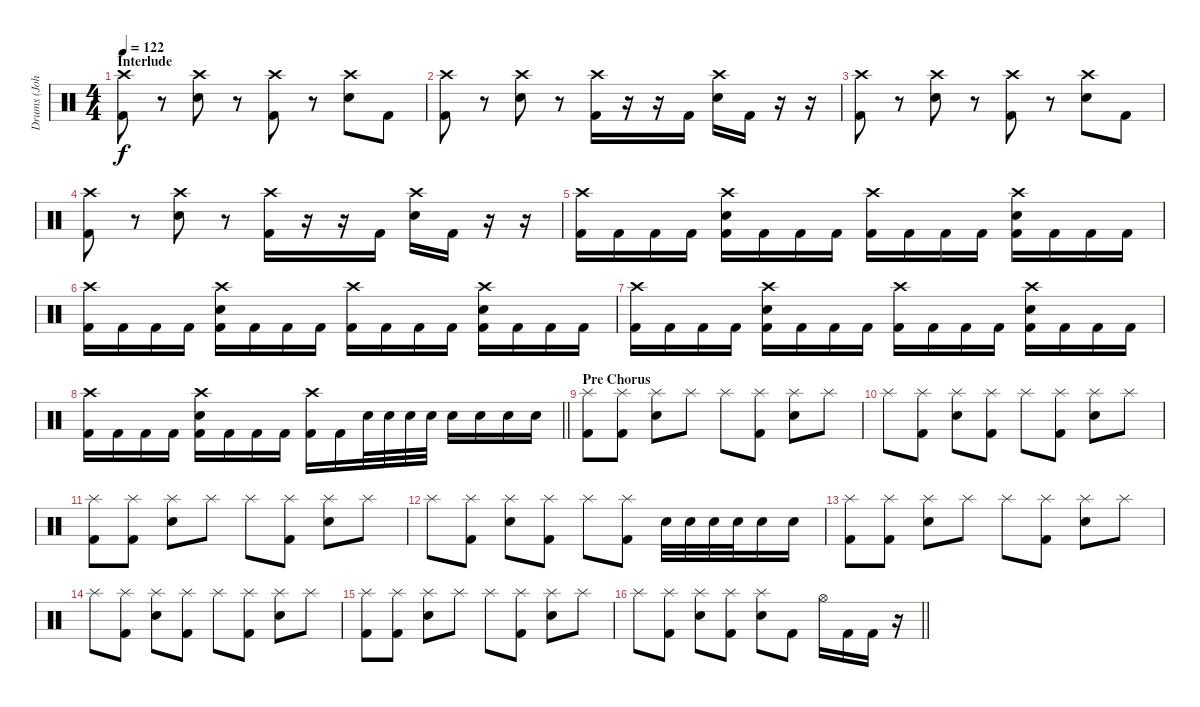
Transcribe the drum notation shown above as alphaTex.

\track ("Drums (John)" "Drums (Joh") {instrument percussion}
\staff {score}
\articulation defaults
\ts (4 4)
\section ("" "Interlude")
\tempo 122
\clef neutral
\ks c
("Crash high (hit)" "Kick (hit) 2").8{dy f} r.8 ("Crash high (hit)" "Electric Snare (hit)").8 r.8 ("Crash high (hit)" "Kick (hit) 2").8 r.8 ("Crash high (hit)" "Electric Snare (hit)").8 "Kick (hit) 2".8 |
("Crash high (hit)" "Kick (hit) 2").8 r.8 ("Crash high (hit)" "Electric Snare (hit)").8 r.8 ("Crash high (hit)" "Kick (hit) 2").16 r.16 r.16 "Kick (hit) 2".16 ("Crash high (hit)" "Electric Snare (hit)").16 "Kick (hit) 2".16 r.16 r.16 |
("Crash high (hit)" "Kick (hit) 2").8 r.8 ("Crash high (hit)" "Electric Snare (hit)").8 r.8 ("Crash high (hit)" "Kick (hit) 2").8 r.8 ("Crash high (hit)" "Electric Snare (hit)").8 "Kick (hit) 2".8 |
("Crash high (hit)" "Kick (hit) 2").8 r.8 ("Crash high (hit)" "Electric Snare (hit)").8 r.8 ("Crash high (hit)" "Kick (hit) 2").16 r.16 r.16 "Kick (hit) 2".16 ("Crash high (hit)" "Electric Snare (hit)").16 "Kick (hit) 2".16 r.16 r.16 |
("Crash high (hit)" "Kick (hit) 2").16 "Kick (hit) 2".16 "Kick (hit) 2".16 "Kick (hit) 2".16 ("Crash high (hit)" "Electric Snare (hit)" "Kick (hit) 2").16 "Kick (hit) 2".16 "Kick (hit) 2".16 "Kick (hit) 2".16 ("Crash high (hit)" "Kick (hit) 2").16 "Kick (hit) 2".16 "Kick (hit) 2".16 "Kick (hit) 2".16 ("Crash high (hit)" "Electric Snare (hit)" "Kick (hit) 2").16 "Kick (hit) 2".16 "Kick (hit) 2".16 "Kick (hit) 2".16 |
("Crash high (hit)" "Kick (hit) 2").16 "Kick (hit) 2".16 "Kick (hit) 2".16 "Kick (hit) 2".16 ("Crash high (hit)" "Electric Snare (hit)" "Kick (hit) 2").16 "Kick (hit) 2".16 "Kick (hit) 2".16 "Kick (hit) 2".16 ("Crash high (hit)" "Kick (hit) 2").16 "Kick (hit) 2".16 "Kick (hit) 2".16 "Kick (hit) 2".16 ("Crash high (hit)" "Electric Snare (hit)" "Kick (hit) 2").16 "Kick (hit) 2".16 "Kick (hit) 2".16 "Kick (hit) 2".16 |
("Crash high (hit)" "Kick (hit) 2").16 "Kick (hit) 2".16 "Kick (hit) 2".16 "Kick (hit) 2".16 ("Crash high (hit)" "Electric Snare (hit)" "Kick (hit) 2").16 "Kick (hit) 2".16 "Kick (hit) 2".16 "Kick (hit) 2".16 ("Crash high (hit)" "Kick (hit) 2").16 "Kick (hit) 2".16 "Kick (hit) 2".16 "Kick (hit) 2".16 ("Crash high (hit)" "Electric Snare (hit)" "Kick (hit) 2").16 "Kick (hit) 2".16 "Kick (hit) 2".16 "Kick (hit) 2".16 |
\barLineRight lightlight
("Crash high (hit)" "Kick (hit) 2").16 "Kick (hit) 2".16 "Kick (hit) 2".16 "Kick (hit) 2".16 ("Crash high (hit)" "Electric Snare (hit)" "Kick (hit) 2").16 "Kick (hit) 2".16 "Kick (hit) 2".16 "Kick (hit) 2".16 ("Crash high (hit)" "Kick (hit) 2").16 "Kick (hit) 2".16 "Electric Snare (hit)".32 "Electric Snare (hit)".32 "Electric Snare (hit)".32 "Electric Snare (hit)".32 "Electric Snare (hit)".16 "Electric Snare (hit)".16 "Electric Snare (hit)".16 "Electric Snare (hit)".16 |
\section ("" "Pre Chorus")
("Splash (hit)" "Kick (hit) 2").8 ("Splash (hit)" "Kick (hit) 2").8 ("Splash (hit)" "Electric Snare (hit)").8 "Splash (hit)".8 "Splash (hit)".8 ("Splash (hit)" "Kick (hit) 2").8 ("Splash (hit)" "Electric Snare (hit)").8 "Splash (hit)".8 |
"Splash (hit)".8 ("Splash (hit)" "Kick (hit) 2").8 ("Splash (hit)" "Electric Snare (hit)").8 ("Splash (hit)" "Kick (hit) 2").8 "Splash (hit)".8 ("Splash (hit)" "Kick (hit) 2").8 ("Splash (hit)" "Electric Snare (hit)").8 "Splash (hit)".8 |
("Splash (hit)" "Kick (hit) 2").8 ("Splash (hit)" "Kick (hit) 2").8 ("Splash (hit)" "Electric Snare (hit)").8 "Splash (hit)".8 "Splash (hit)".8 ("Splash (hit)" "Kick (hit) 2").8 ("Splash (hit)" "Electric Snare (hit)").8 "Splash (hit)".8 |
"Splash (hit)".8 ("Splash (hit)" "Kick (hit) 2").8 ("Splash (hit)" "Electric Snare (hit)").8 ("Splash (hit)" "Kick (hit) 2").8 "Splash (hit)".8 ("Splash (hit)" "Kick (hit) 2").8 "Electric Snare (hit)".32 "Electric Snare (hit)".32 "Electric Snare (hit)".32 "Electric Snare (hit)".32 "Electric Snare (hit)".16 "Electric Snare (hit)".16 |
("Splash (hit)" "Kick (hit) 2").8 ("Splash (hit)" "Kick (hit) 2").8 ("Splash (hit)" "Electric Snare (hit)").8 "Splash (hit)".8 "Splash (hit)".8 ("Splash (hit)" "Kick (hit) 2").8 ("Splash (hit)" "Electric Snare (hit)").8 "Splash (hit)".8 |
"Splash (hit)".8 ("Splash (hit)" "Kick (hit) 2").8 ("Splash (hit)" "Electric Snare (hit)").8 ("Splash (hit)" "Kick (hit) 2").8 "Splash (hit)".8 ("Splash (hit)" "Kick (hit) 2").8 ("Splash (hit)" "Electric Snare (hit)").8 "Splash (hit)".8 |
("Splash (hit)" "Kick (hit) 2").8 ("Splash (hit)" "Kick (hit) 2").8 ("Splash (hit)" "Electric Snare (hit)").8 "Splash (hit)".8 "Splash (hit)".8 ("Splash (hit)" "Kick (hit) 2").8 ("Splash (hit)" "Electric Snare (hit)").8 "Splash (hit)".8 |
\barLineRight lightlight "Splash (hit)".8
("Splash (hit)" "Kick (hit) 2").8 ("Splash (hit)" "Electric Snare (hit)").8 ("Splash (hit)" "Kick (hit) 2").8 ("Splash (hit)" "Electric Snare (hit)").8 "Kick (hit) 2".8 "Hi-Hat (open)".16 "Kick (hit) 2".16 "Kick (hit) 2".16 r.16
